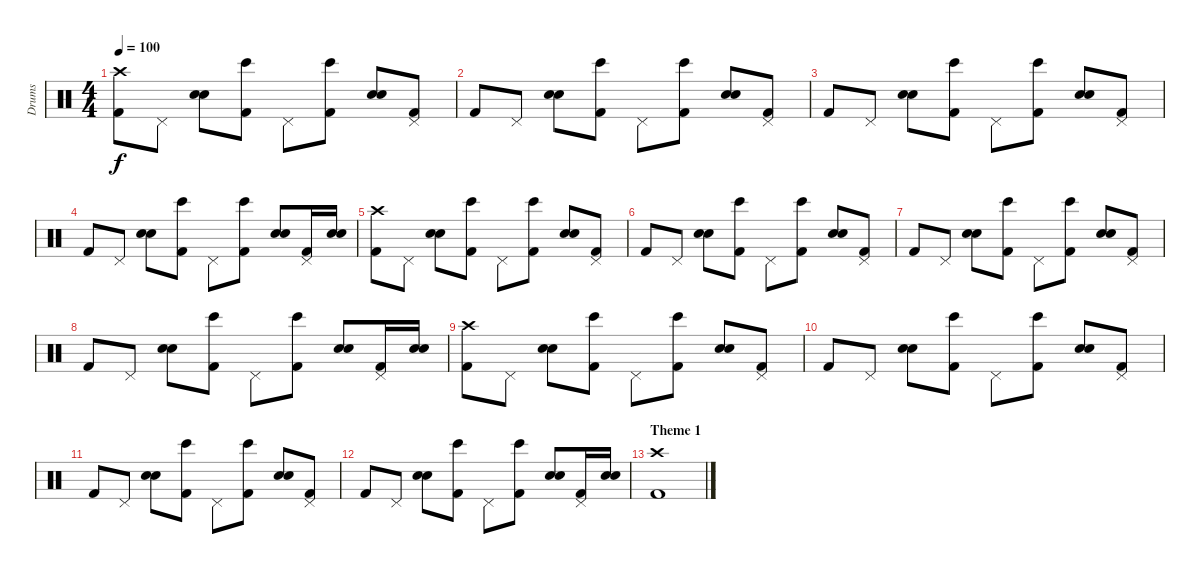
\track ("Drums" "Drums") {instrument percussion}
\staff {score}
\articulation defaults
\ts (4 4)
\tempo 100
\clef neutral
\ks c
("Kick (hit) 2" "Crash high (hit)").8{dy f} "Pedal Hi-Hat (hit)".8 ("Snare (hit) 2" "Electric Snare (hit)").8 ("Kick (hit) 2" "Bongo High (hit)").8 "Pedal Hi-Hat (hit)".8 ("Kick (hit) 2" "Bongo High (hit)").8 ("Snare (hit) 2" "Electric Snare (hit)").8 ("Kick (hit) 2" "Pedal Hi-Hat (hit)").8 |
"Kick (hit) 2".8 "Pedal Hi-Hat (hit)".8 ("Snare (hit) 2" "Electric Snare (hit)").8 ("Kick (hit) 2" "Bongo High (hit)").8 "Pedal Hi-Hat (hit)".8 ("Kick (hit) 2" "Bongo High (hit)").8 ("Snare (hit) 2" "Electric Snare (hit)").8 ("Kick (hit) 2" "Pedal Hi-Hat (hit)").8 |
"Kick (hit) 2".8 "Pedal Hi-Hat (hit)".8 ("Snare (hit) 2" "Electric Snare (hit)").8 ("Kick (hit) 2" "Bongo High (hit)").8 "Pedal Hi-Hat (hit)".8 ("Kick (hit) 2" "Bongo High (hit)").8 ("Snare (hit) 2" "Electric Snare (hit)").8 ("Kick (hit) 2" "Pedal Hi-Hat (hit)").8 |
"Kick (hit) 2".8 "Pedal Hi-Hat (hit)".8 ("Snare (hit) 2" "Electric Snare (hit)").8 ("Kick (hit) 2" "Bongo High (hit)").8 "Pedal Hi-Hat (hit)".8 ("Kick (hit) 2" "Bongo High (hit)").8 ("Snare (hit) 2" "Electric Snare (hit)").8 ("Kick (hit) 2" "Pedal Hi-Hat (hit)").16 ("Snare (hit) 2" "Electric Snare (hit)").16 |
("Kick (hit) 2" "Crash high (hit)").8 "Pedal Hi-Hat (hit)".8 ("Snare (hit) 2" "Electric Snare (hit)").8 ("Kick (hit) 2" "Bongo High (hit)").8 "Pedal Hi-Hat (hit)".8 ("Kick (hit) 2" "Bongo High (hit)").8 ("Snare (hit) 2" "Electric Snare (hit)").8 ("Kick (hit) 2" "Pedal Hi-Hat (hit)").8 |
"Kick (hit) 2".8 "Pedal Hi-Hat (hit)".8 ("Snare (hit) 2" "Electric Snare (hit)").8 ("Kick (hit) 2" "Bongo High (hit)").8 "Pedal Hi-Hat (hit)".8 ("Kick (hit) 2" "Bongo High (hit)").8 ("Snare (hit) 2" "Electric Snare (hit)").8 ("Kick (hit) 2" "Pedal Hi-Hat (hit)").8 |
"Kick (hit) 2".8 "Pedal Hi-Hat (hit)".8 ("Snare (hit) 2" "Electric Snare (hit)").8 ("Kick (hit) 2" "Bongo High (hit)").8 "Pedal Hi-Hat (hit)".8 ("Kick (hit) 2" "Bongo High (hit)").8 ("Snare (hit) 2" "Electric Snare (hit)").8 ("Kick (hit) 2" "Pedal Hi-Hat (hit)").8 |
"Kick (hit) 2".8 "Pedal Hi-Hat (hit)".8 ("Snare (hit) 2" "Electric Snare (hit)").8 ("Kick (hit) 2" "Bongo High (hit)").8 "Pedal Hi-Hat (hit)".8 ("Kick (hit) 2" "Bongo High (hit)").8 ("Snare (hit) 2" "Electric Snare (hit)").8 ("Kick (hit) 2" "Pedal Hi-Hat (hit)").16 ("Snare (hit) 2" "Electric Snare (hit)").16 |
("Kick (hit) 2" "Crash high (hit)").8 "Pedal Hi-Hat (hit)".8 ("Snare (hit) 2" "Electric Snare (hit)").8 ("Kick (hit) 2" "Bongo High (hit)").8 "Pedal Hi-Hat (hit)".8 ("Kick (hit) 2" "Bongo High (hit)").8 ("Snare (hit) 2" "Electric Snare (hit)").8 ("Kick (hit) 2" "Pedal Hi-Hat (hit)").8 |
"Kick (hit) 2".8 "Pedal Hi-Hat (hit)".8 ("Snare (hit) 2" "Electric Snare (hit)").8 ("Kick (hit) 2" "Bongo High (hit)").8 "Pedal Hi-Hat (hit)".8 ("Kick (hit) 2" "Bongo High (hit)").8 ("Snare (hit) 2" "Electric Snare (hit)").8 ("Kick (hit) 2" "Pedal Hi-Hat (hit)").8 |
"Kick (hit) 2".8 "Pedal Hi-Hat (hit)".8 ("Snare (hit) 2" "Electric Snare (hit)").8 ("Kick (hit) 2" "Bongo High (hit)").8 "Pedal Hi-Hat (hit)".8 ("Kick (hit) 2" "Bongo High (hit)").8 ("Snare (hit) 2" "Electric Snare (hit)").8 ("Kick (hit) 2" "Pedal Hi-Hat (hit)").8 |
"Kick (hit) 2".8 "Pedal Hi-Hat (hit)".8 ("Snare (hit) 2" "Electric Snare (hit)").8 ("Kick (hit) 2" "Bongo High (hit)").8 "Pedal Hi-Hat (hit)".8 ("Kick (hit) 2" "Bongo High (hit)").8 ("Snare (hit) 2" "Electric Snare (hit)").8 ("Kick (hit) 2" "Pedal Hi-Hat (hit)").16 ("Snare (hit) 2" "Electric Snare (hit)").16 |
\section ("" "Theme 1")
("Kick (hit) 2" "Crash high (hit)").1
